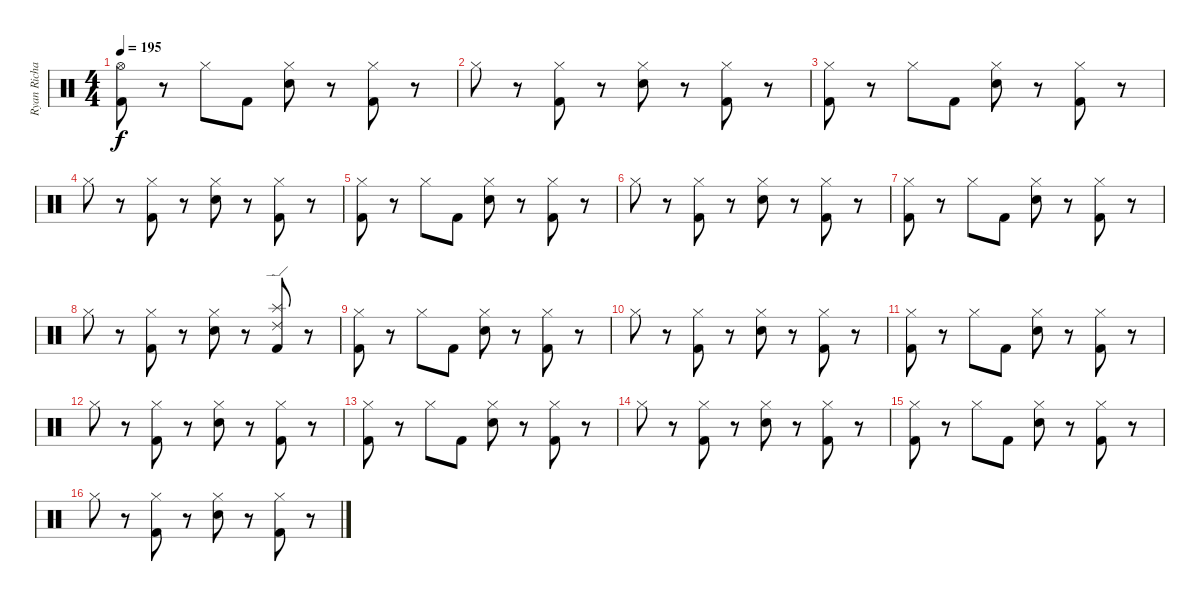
\track ("Ryan Richards" "Ryan Richa") {instrument percussion}
\staff {score}
\articulation defaults
\ts (4 4)
\tempo 195
\clef neutral
\ks c
("Kick (hit) 2" "Hi-Hat (open)").8{dy f} r.8 "Hi-Hat (closed)".8 "Kick (hit) 2".8 ("Hi-Hat (closed)" "Snare (hit) 2").8 r.8 ("Kick (hit) 2" "Hi-Hat (closed)").8 r.8 |
"Hi-Hat (closed)".8 r.8 ("Kick (hit) 2" "Hi-Hat (closed)").8 r.8 ("Hi-Hat (closed)" "Snare (hit) 2").8 r.8 ("Kick (hit) 2" "Hi-Hat (closed)").8 r.8 |
("Kick (hit) 2" "Hi-Hat (closed)").8 r.8 "Hi-Hat (closed)".8 "Kick (hit) 2".8 ("Hi-Hat (closed)" "Snare (hit) 2").8 r.8 ("Kick (hit) 2" "Hi-Hat (closed)").8 r.8 |
"Hi-Hat (closed)".8 r.8 ("Kick (hit) 2" "Hi-Hat (closed)").8 r.8 ("Hi-Hat (closed)" "Snare (hit) 2").8 r.8 ("Kick (hit) 2" "Hi-Hat (closed)").8 r.8 |
("Kick (hit) 2" "Hi-Hat (closed)").8 r.8 "Hi-Hat (closed)".8 "Kick (hit) 2".8 ("Hi-Hat (closed)" "Snare (hit) 2").8 r.8 ("Kick (hit) 2" "Hi-Hat (closed)").8 r.8 |
"Hi-Hat (closed)".8 r.8 ("Kick (hit) 2" "Hi-Hat (closed)").8 r.8 ("Hi-Hat (closed)" "Snare (hit) 2").8 r.8 ("Kick (hit) 2" "Hi-Hat (closed)").8 r.8 |
("Kick (hit) 2" "Hi-Hat (closed)").8 r.8 "Hi-Hat (closed)".8 "Kick (hit) 2".8 ("Hi-Hat (closed)" "Snare (hit) 2").8 r.8 ("Kick (hit) 2" "Hi-Hat (closed)").8 r.8 |
"Hi-Hat (closed)".8 r.8 ("Kick (hit) 2" "Hi-Hat (closed)").8 r.8 ("Hi-Hat (closed)" "Snare (hit) 2").8 r.8 ("Kick (hit) 2" "Splash (hit)" "Ride (edge) 2").8 r.8 |
("Kick (hit) 2" "Hi-Hat (closed)").8 r.8 "Hi-Hat (closed)".8 "Kick (hit) 2".8 ("Hi-Hat (closed)" "Snare (hit) 2").8 r.8 ("Kick (hit) 2" "Hi-Hat (closed)").8 r.8 |
"Hi-Hat (closed)".8 r.8 ("Kick (hit) 2" "Hi-Hat (closed)").8 r.8 ("Hi-Hat (closed)" "Snare (hit) 2").8 r.8 ("Kick (hit) 2" "Hi-Hat (closed)").8 r.8 |
("Kick (hit) 2" "Hi-Hat (closed)").8 r.8 "Hi-Hat (closed)".8 "Kick (hit) 2".8 ("Hi-Hat (closed)" "Snare (hit) 2").8 r.8 ("Kick (hit) 2" "Hi-Hat (closed)").8 r.8 |
"Hi-Hat (closed)".8 r.8 ("Kick (hit) 2" "Hi-Hat (closed)").8 r.8 ("Hi-Hat (closed)" "Snare (hit) 2").8 r.8 ("Kick (hit) 2" "Hi-Hat (closed)").8 r.8 |
("Kick (hit) 2" "Hi-Hat (closed)").8 r.8 "Hi-Hat (closed)".8 "Kick (hit) 2".8 ("Hi-Hat (closed)" "Snare (hit) 2").8 r.8 ("Kick (hit) 2" "Hi-Hat (closed)").8 r.8 |
"Hi-Hat (closed)".8 r.8 ("Kick (hit) 2" "Hi-Hat (closed)").8 r.8 ("Hi-Hat (closed)" "Snare (hit) 2").8 r.8 ("Kick (hit) 2" "Hi-Hat (closed)").8 r.8 |
("Kick (hit) 2" "Hi-Hat (closed)").8 r.8 "Hi-Hat (closed)".8 "Kick (hit) 2".8 ("Hi-Hat (closed)" "Snare (hit) 2").8 r.8 ("Kick (hit) 2" "Hi-Hat (closed)").8 r.8 |
"Hi-Hat (closed)".8 r.8 ("Kick (hit) 2" "Hi-Hat (closed)").8 r.8 ("Hi-Hat (closed)" "Snare (hit) 2").8 r.8 ("Kick (hit) 2" "Hi-Hat (closed)").8 r.8
